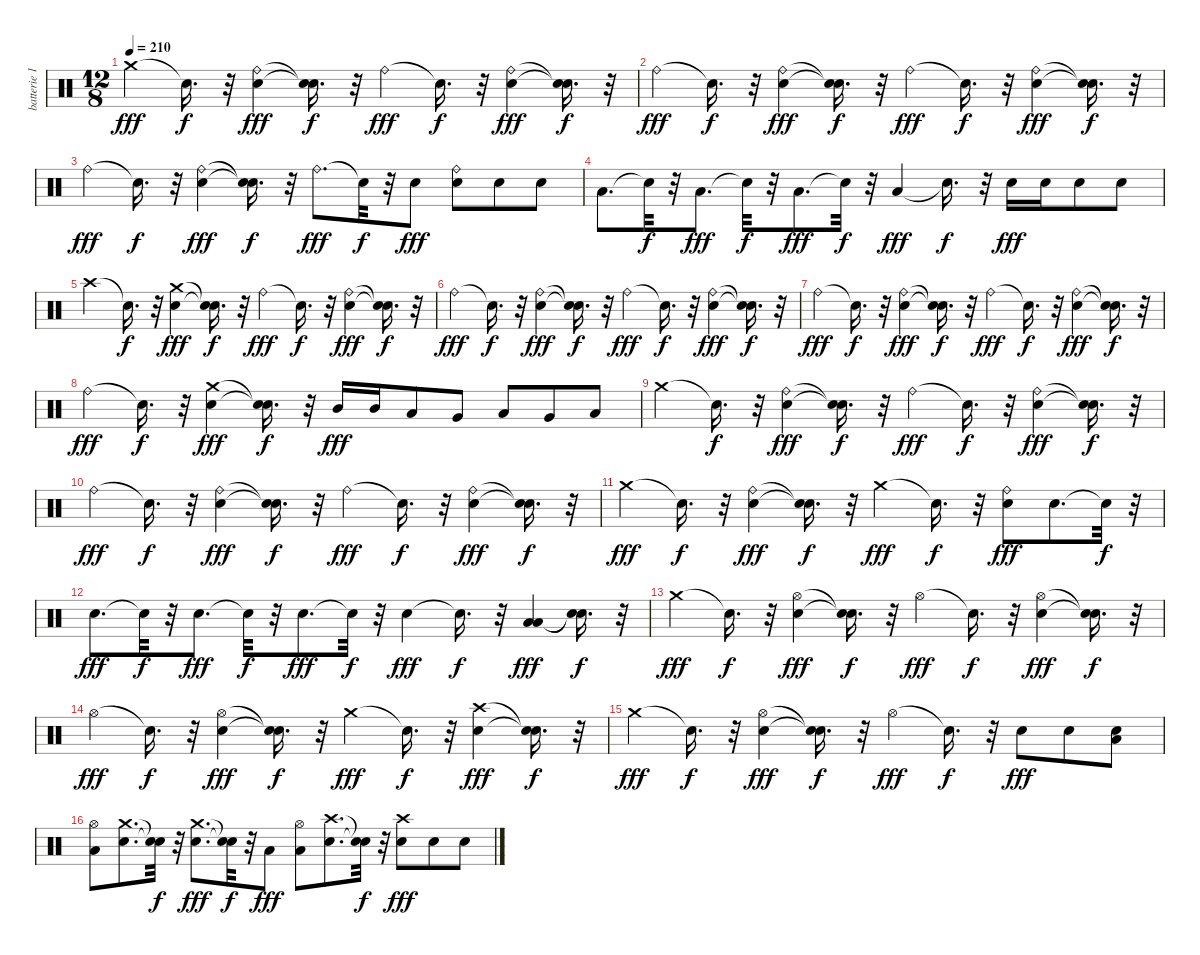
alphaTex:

\track ("batterie 1" "batterie 1") {instrument percussion}
\staff {score}
\articulation defaults
\ts (12 8)
\tempo 210
\clef neutral
\ks c "Crash medium (hit)".4{dy fff} "Snare (hit)"{t}.16{d dy f}
r.32 ("Electric Snare (hit)" "Ride (bell)").4{dy fff} ("Snare (hit)"{t} "Snare (hit)"{t}).16{d dy f} r.32 "Ride (bell)".4{dy fff} "Snare (hit)"{t}.16{d dy f} r.32 ("Electric Snare (hit)" "Ride (bell)").4{dy fff} ("Snare (hit)"{t} "Snare (hit)"{t}).16{d dy f} r.32 |
"Ride (bell)".4{dy fff} "Snare (hit)"{t}.16{d dy f} r.32 ("Electric Snare (hit)" "Ride (bell)").4{dy fff} ("Snare (hit)"{t} "Snare (hit)"{t}).16{d dy f} r.32 "Ride (bell)".4{dy fff} "Snare (hit)"{t}.16{d dy f} r.32 ("Electric Snare (hit)" "Ride (bell)").4{dy fff} ("Snare (hit)"{t} "Snare (hit)"{t}).16{d dy f} r.32 |
"Ride (bell)".4{dy fff} "Snare (hit)"{t}.16{d dy f} r.32 ("Electric Snare (hit)" "Ride (bell)").4{dy fff} ("Snare (hit)"{t} "Snare (hit)"{t}).16{d dy f} r.32 "Ride (bell)".8{d dy fff} "Snare (hit)"{t}.32{dy f} r.32 "Electric Snare (hit)".8{dy fff} ("Electric Snare (hit)" "Ride (bell)").8 "Electric Snare (hit)".8 "Electric Snare (hit)".8 |
"Low Floor Tom (hit)".8{d} "Snare (hit)"{t}.32{dy f} r.32 "Low Floor Tom (hit)".8{d dy fff} "Snare (hit)"{t}.32{dy f} r.32 "Low Floor Tom (hit)".8{d dy fff} "Snare (hit)"{t}.32{dy f} r.32 "Low Floor Tom (hit)".4{dy fff} "Snare (hit)"{t}.16{d dy f} r.32 "Electric Snare (hit)".16{dy fff} "Electric Snare (hit)".16 "Electric Snare (hit)".8 "Electric Snare (hit)".8 |
"Crash high (hit)".4 "Snare (hit)"{t}.16{d dy f} r.32 ("Electric Snare (hit)" "Crash medium (hit)").4{dy fff} ("Snare (hit)"{t} "Snare (hit)"{t}).16{d dy f} r.32 "Ride (bell)".4{dy fff} "Snare (hit)"{t}.16{d dy f} r.32 ("Electric Snare (hit)" "Ride (bell)").4{dy fff} ("Snare (hit)"{t} "Snare (hit)"{t}).16{d dy f} r.32 |
"Ride (bell)".4{dy fff} "Snare (hit)"{t}.16{d dy f} r.32 ("Electric Snare (hit)" "Ride (bell)").4{dy fff} ("Snare (hit)"{t} "Snare (hit)"{t}).16{d dy f} r.32 "Ride (bell)".4{dy fff} "Snare (hit)"{t}.16{d dy f} r.32 ("Electric Snare (hit)" "Ride (bell)").4{dy fff} ("Snare (hit)"{t} "Snare (hit)"{t}).16{d dy f} r.32 |
"Ride (bell)".4{dy fff} "Snare (hit)"{t}.16{d dy f} r.32 ("Electric Snare (hit)" "Ride (bell)").4{dy fff} ("Snare (hit)"{t} "Snare (hit)"{t}).16{d dy f} r.32 "Ride (bell)".4{dy fff} "Snare (hit)"{t}.16{d dy f} r.32 ("Electric Snare (hit)" "Ride (bell)").4{dy fff} ("Snare (hit)"{t} "Snare (hit)"{t}).16{d dy f} r.32 |
"Ride (bell)".4{dy fff} "Snare (hit)"{t}.16{d dy f} r.32 ("Electric Snare (hit)" "Crash medium (hit)").4{dy fff} ("Snare (hit)"{t} "Snare (hit)"{t}).16{d dy f} r.32 "Mid Tom (hit)".16{dy fff} "Mid Tom (hit)".16 "Low Tom (hit)".8 "Very Low Tom (hit)".8 "Low Tom (hit)".8 "Very Low Tom (hit)".8 "Low Floor Tom (hit)".8 |
"Crash medium (hit)".4 "Snare (hit)"{t}.16{d dy f} r.32 ("Electric Snare (hit)" "Ride (bell)").4{dy fff} ("Snare (hit)"{t} "Snare (hit)"{t}).16{d dy f} r.32 "Ride (bell)".4{dy fff} "Snare (hit)"{t}.16{d dy f} r.32 ("Electric Snare (hit)" "Ride (bell)").4{dy fff} ("Snare (hit)"{t} "Snare (hit)"{t}).16{d dy f} r.32 |
"Ride (bell)".4{dy fff} "Snare (hit)"{t}.16{d dy f} r.32 ("Electric Snare (hit)" "Ride (bell)").4{dy fff} ("Snare (hit)"{t} "Snare (hit)"{t}).16{d dy f} r.32 "Ride (bell)".4{dy fff} "Snare (hit)"{t}.16{d dy f} r.32 ("Electric Snare (hit)" "Ride (bell)").4{dy fff} ("Snare (hit)"{t} "Snare (hit)"{t}).16{d dy f} r.32 |
"Crash medium (hit)".4{dy fff} "Snare (hit)"{t}.16{d dy f} r.32 ("Electric Snare (hit)" "Ride (bell)").4{dy fff} ("Snare (hit)"{t} "Snare (hit)"{t}).16{d dy f} r.32 "Crash medium (hit)".4{dy fff} "Snare (hit)"{t}.16{d dy f} r.32 ("Electric Snare (hit)" "Ride (bell)").8{dy fff} "Electric Snare (hit)".8{d} "Snare (hit)"{t}.32{dy f} r.32 |
"Electric Snare (hit)".8{d dy fff} "Snare (hit)"{t}.32{dy f} r.32 "Electric Snare (hit)".8{d dy fff} "Snare (hit)"{t}.32{dy f} r.32 "Electric Snare (hit)".8{d dy fff} "Snare (hit)"{t}.32{dy f} r.32 "Electric Snare (hit)".4{dy fff} "Snare (hit)"{t}.16{d dy f} r.32 ("Low Floor Tom (hit)" "Low Tom (hit)").4{dy fff} ("Snare (hit)"{t} "Snare (hit)"{t}).16{d dy f} r.32 |
"Crash medium (hit)".4{dy fff} "Snare (hit)"{t}.16{d dy f} r.32 ("Electric Snare (hit)" "Hi-Hat (open)").4{dy fff} ("Snare (hit)"{t} "Snare (hit)"{t}).16{d dy f} r.32 "Hi-Hat (open)".4{dy fff} "Snare (hit)"{t}.16{d dy f} r.32 ("Electric Snare (hit)" "Hi-Hat (open)").4{dy fff} ("Snare (hit)"{t} "Snare (hit)"{t}).16{d dy f} r.32 |
"Hi-Hat (open)".4{dy fff} "Snare (hit)"{t}.16{d dy f} r.32 ("Electric Snare (hit)" "Hi-Hat (open)").4{dy fff} ("Snare (hit)"{t} "Snare (hit)"{t}).16{d dy f} r.32 "Crash medium (hit)".4{dy fff} "Snare (hit)"{t}.16{d dy f} r.32 ("Electric Snare (hit)" "Crash high (hit)").4{dy fff} ("Snare (hit)"{t} "Snare (hit)"{t}).16{d dy f} r.32 |
"Crash medium (hit)".4{dy fff} "Snare (hit)"{t}.16{d dy f} r.32 ("Electric Snare (hit)" "Hi-Hat (open)").4{dy fff} ("Snare (hit)"{t} "Snare (hit)"{t}).16{d dy f} r.32 "Hi-Hat (open)".4{dy fff} "Snare (hit)"{t}.16{d dy f} r.32 "Electric Snare (hit)".8{dy fff} "Electric Snare (hit)".8 ("Electric Snare (hit)" "Low Floor Tom (hit)").8 |
("Low Floor Tom (hit)" "Hi-Hat (open)").8 ("Electric Snare (hit)" "Crash medium (hit)").8{d} ("Snare (hit)"{t} "Snare (hit)"{t}).32{dy f} r.32 ("Electric Snare (hit)" "Crash medium (hit)").8{d dy fff} ("Snare (hit)"{t} "Snare (hit)"{t}).32{dy f} r.32 "Low Floor Tom (hit)".8{dy fff} ("Low Floor Tom (hit)" "Hi-Hat (open)").8 ("Electric Snare (hit)" "Crash high (hit)").8{d} ("Snare (hit)"{t} "Snare (hit)"{t}).32{dy f} r.32 ("Electric Snare (hit)" "Crash high (hit)").8{dy fff} "Electric Snare (hit)".8 "Electric Snare (hit)".8
